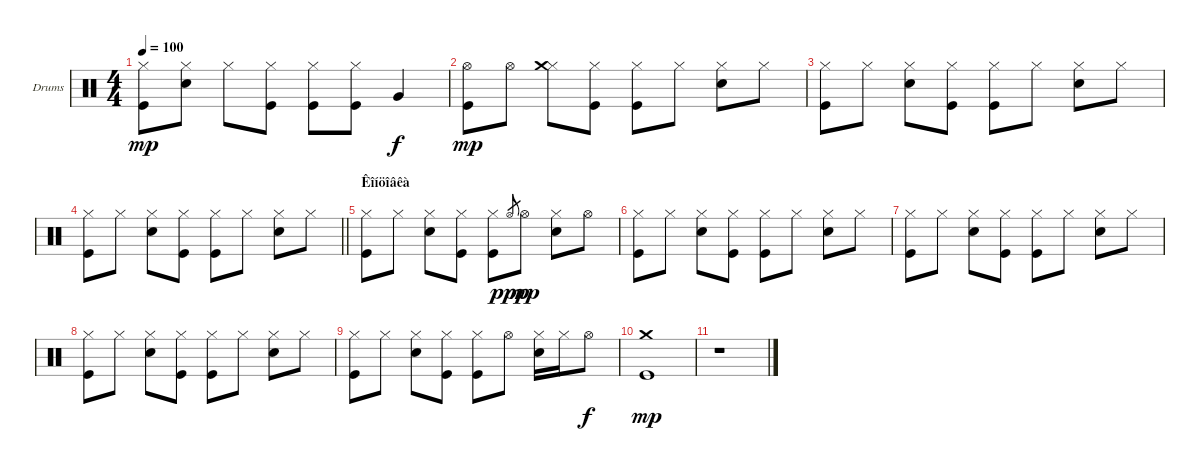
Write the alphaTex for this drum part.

\bracketExtendMode groupsimilarinstruments
\firstSystemTrackNameOrientation horizontal
\otherSystemsTrackNameOrientation horizontal
\track ("Drumkit" "Drums") {instrument percussion}
\staff {score}
\articulation defaults
\ts (4 4)
\tempo 100
\clef neutral
\scale
0.333333
\ks c
("Hi-Hat (closed)" "Kick (hit)").8{dy mp} ("Hi-Hat (closed)" "Snare (hit) 2").8 "Hi-Hat (closed)".8 ("Hi-Hat (closed)" "Kick (hit)").8 ("Hi-Hat (closed)" "Kick (hit)").8 ("Hi-Hat (closed)" "Kick (hit)").8 "Very Low Tom (hit)".4{dy f} |
\scale
0.333333 ("Hi-Hat (open)" "Kick (hit)").8{dy mp} "Hi-Hat (open)".8 ("Hi-Hat (closed)" "Crash medium (hit)").8 ("Hi-Hat (closed)" "Kick (hit)").8 ("Hi-Hat (closed)" "Kick (hit)").8 "Hi-Hat (closed)".8 ("Hi-Hat (closed)" "Snare (hit) 2").8 "Hi-Hat (closed)".8 |
\scale
0.333333 ("Hi-Hat (closed)" "Kick (hit)").8 "Hi-Hat (closed)".8 ("Hi-Hat (closed)" "Snare (hit) 2").8 ("Hi-Hat (closed)" "Kick (hit)").8 ("Hi-Hat (closed)" "Kick (hit)").8 "Hi-Hat (closed)".8 ("Hi-Hat (closed)" "Snare (hit) 2").8 "Hi-Hat (closed)".8 |
\scale
0.333333
\barLineRight lightlight
("Hi-Hat (closed)" "Kick (hit)").8 "Hi-Hat (closed)".8 ("Hi-Hat (closed)" "Snare (hit) 2").8 ("Hi-Hat (closed)" "Kick (hit)").8 ("Hi-Hat (closed)" "Kick (hit)").8 "Hi-Hat (closed)".8 ("Hi-Hat (closed)" "Snare (hit) 2").8 "Hi-Hat (closed)".8 |
\section ("" "Êîíöîâêà")
\scale
0.333333 ("Hi-Hat (closed)" "Kick (hit)").8 "Hi-Hat (closed)".8 ("Hi-Hat (closed)" "Snare (hit) 2").8 ("Hi-Hat (closed)" "Kick (hit)").8 ("Hi-Hat (closed)" "Kick (hit)").8 "Hi-Hat (open)".8{gr dy ppp} "Hi-Hat (open)".8{dy mp} ("Hi-Hat (closed)" "Snare (hit) 2").8 "Hi-Hat (open)".8 |
\scale
0.333333 ("Hi-Hat (closed)" "Kick (hit)").8 "Hi-Hat (closed)".8 ("Hi-Hat (closed)" "Snare (hit) 2").8 ("Hi-Hat (closed)" "Kick (hit)").8 ("Hi-Hat (closed)" "Kick (hit)").8 "Hi-Hat (closed)".8 ("Hi-Hat (closed)" "Snare (hit) 2").8 "Hi-Hat (closed)".8 |
\scale
0.333333 ("Hi-Hat (closed)" "Kick (hit)").8 "Hi-Hat (closed)".8 ("Hi-Hat (closed)" "Snare (hit) 2").8 ("Hi-Hat (closed)" "Kick (hit)").8 ("Hi-Hat (closed)" "Kick (hit)").8 "Hi-Hat (closed)".8 ("Hi-Hat (closed)" "Snare (hit) 2").8 "Hi-Hat (closed)".8 |
\scale
0.333333 ("Hi-Hat (closed)" "Kick (hit)").8 "Hi-Hat (closed)".8 ("Hi-Hat (closed)" "Snare (hit) 2").8 ("Hi-Hat (closed)" "Kick (hit)").8 ("Hi-Hat (closed)" "Kick (hit)").8 "Hi-Hat (closed)".8 ("Hi-Hat (closed)" "Snare (hit) 2").8 "Hi-Hat (closed)".8 |
\scale
0.333333 ("Hi-Hat (closed)" "Kick (hit)").8 "Hi-Hat (closed)".8 ("Hi-Hat (closed)" "Snare (hit) 2").8 ("Hi-Hat (closed)" "Kick (hit)").8 ("Hi-Hat (closed)" "Kick (hit)").8 "Hi-Hat (open)".8 ("Hi-Hat (closed)" "Snare (hit) 2").16 "Hi-Hat (closed)".16 "Hi-Hat (open)".8{dy f} |
\scale
0.333333 ("Kick (hit)" "Crash medium (hit)").1{dy mp} |
\scale
0.333333 r.1 |
\scale
0.333333 |
\scale
0.333333 |
\scale
0.333333 |
\scale
0.333333 |
\scale
0.333333
